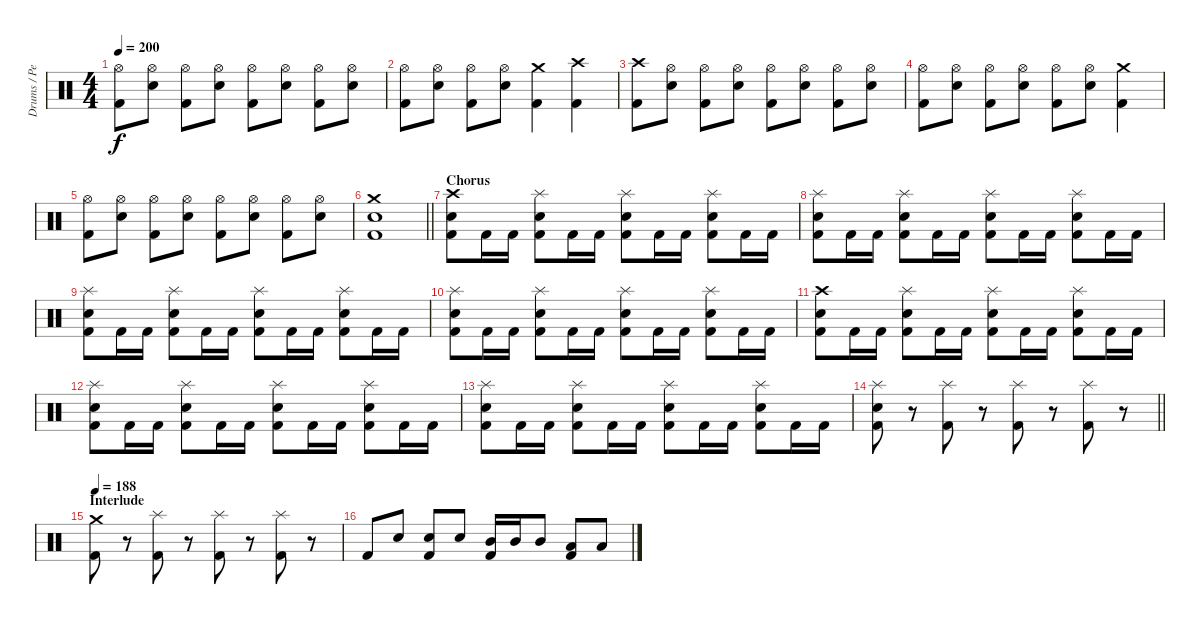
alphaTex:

\track ("Drums / Percussion" "Drums / Pe") {instrument percussion}
\staff {score}
\articulation defaults
\ts (4 4)
\tempo 200
\clef neutral
\ks c
("Hi-Hat (open)" "Kick (hit) 2").8{dy f} ("Hi-Hat (open)" "Electric Snare (hit)").8 ("Hi-Hat (open)" "Kick (hit) 2").8 ("Hi-Hat (open)" "Electric Snare (hit)").8 ("Hi-Hat (open)" "Kick (hit) 2").8 ("Hi-Hat (open)" "Electric Snare (hit)").8 ("Hi-Hat (open)" "Kick (hit) 2").8 ("Hi-Hat (open)" "Electric Snare (hit)").8 |
("Hi-Hat (open)" "Kick (hit) 2").8 ("Hi-Hat (open)" "Electric Snare (hit)").8 ("Hi-Hat (open)" "Kick (hit) 2").8 ("Hi-Hat (open)" "Electric Snare (hit)").8 ("Crash medium (hit)" "Kick (hit) 2").4 ("Crash high (hit)" "Kick (hit) 2").4 |
("Crash high (hit)" "Kick (hit) 2").8 ("Hi-Hat (open)" "Electric Snare (hit)").8 ("Hi-Hat (open)" "Kick (hit) 2").8 ("Hi-Hat (open)" "Electric Snare (hit)").8 ("Hi-Hat (open)" "Kick (hit) 2").8 ("Hi-Hat (open)" "Electric Snare (hit)").8 ("Hi-Hat (open)" "Kick (hit) 2").8 ("Hi-Hat (open)" "Electric Snare (hit)").8 |
("Hi-Hat (open)" "Kick (hit) 2").8 ("Hi-Hat (open)" "Electric Snare (hit)").8 ("Hi-Hat (open)" "Kick (hit) 2").8 ("Hi-Hat (open)" "Electric Snare (hit)").8 ("Hi-Hat (open)" "Kick (hit) 2").8 ("Hi-Hat (open)" "Electric Snare (hit)").8 ("Crash medium (hit)" "Kick (hit) 2").4 |
("Hi-Hat (open)" "Kick (hit) 2").8 ("Hi-Hat (open)" "Electric Snare (hit)").8 ("Hi-Hat (open)" "Kick (hit) 2").8 ("Hi-Hat (open)" "Electric Snare (hit)").8 ("Hi-Hat (open)" "Kick (hit) 2").8 ("Hi-Hat (open)" "Electric Snare (hit)").8 ("Hi-Hat (open)" "Kick (hit) 2").8 ("Hi-Hat (open)" "Electric Snare (hit)").8 |
\barLineRight lightlight
("Crash medium (hit)" "Electric Snare (hit)" "Kick (hit) 2").1 |
\section ("" "Chorus")
("Crash high (hit)" "Electric Snare (hit)" "Kick (hit) 2").8 "Kick (hit) 2".16 "Kick (hit) 2".16 ("Splash (hit)" "Electric Snare (hit)" "Kick (hit) 2").8 "Kick (hit) 2".16 "Kick (hit) 2".16 ("Splash (hit)" "Electric Snare (hit)" "Kick (hit) 2").8 "Kick (hit) 2".16 "Kick (hit) 2".16 ("Splash (hit)" "Electric Snare (hit)" "Kick (hit) 2").8 "Kick (hit) 2".16 "Kick (hit) 2".16 |
("Splash (hit)" "Electric Snare (hit)" "Kick (hit) 2").8 "Kick (hit) 2".16 "Kick (hit) 2".16 ("Splash (hit)" "Electric Snare (hit)" "Kick (hit) 2").8 "Kick (hit) 2".16 "Kick (hit) 2".16 ("Splash (hit)" "Electric Snare (hit)" "Kick (hit) 2").8 "Kick (hit) 2".16 "Kick (hit) 2".16 ("Splash (hit)" "Electric Snare (hit)" "Kick (hit) 2").8 "Kick (hit) 2".16 "Kick (hit) 2".16 |
("Splash (hit)" "Electric Snare (hit)" "Kick (hit) 2").8 "Kick (hit) 2".16 "Kick (hit) 2".16 ("Splash (hit)" "Electric Snare (hit)" "Kick (hit) 2").8 "Kick (hit) 2".16 "Kick (hit) 2".16 ("Splash (hit)" "Electric Snare (hit)" "Kick (hit) 2").8 "Kick (hit) 2".16 "Kick (hit) 2".16 ("Splash (hit)" "Electric Snare (hit)" "Kick (hit) 2").8 "Kick (hit) 2".16 "Kick (hit) 2".16 |
("Splash (hit)" "Electric Snare (hit)" "Kick (hit) 2").8 "Kick (hit) 2".16 "Kick (hit) 2".16 ("Splash (hit)" "Electric Snare (hit)" "Kick (hit) 2").8 "Kick (hit) 2".16 "Kick (hit) 2".16 ("Splash (hit)" "Electric Snare (hit)" "Kick (hit) 2").8 "Kick (hit) 2".16 "Kick (hit) 2".16 ("Splash (hit)" "Electric Snare (hit)" "Kick (hit) 2").8 "Kick (hit) 2".16 "Kick (hit) 2".16 |
("Crash high (hit)" "Electric Snare (hit)" "Kick (hit) 2").8 "Kick (hit) 2".16 "Kick (hit) 2".16 ("Splash (hit)" "Electric Snare (hit)" "Kick (hit) 2").8 "Kick (hit) 2".16 "Kick (hit) 2".16 ("Splash (hit)" "Electric Snare (hit)" "Kick (hit) 2").8 "Kick (hit) 2".16 "Kick (hit) 2".16 ("Splash (hit)" "Electric Snare (hit)" "Kick (hit) 2").8 "Kick (hit) 2".16 "Kick (hit) 2".16 |
("Splash (hit)" "Electric Snare (hit)" "Kick (hit) 2").8 "Kick (hit) 2".16 "Kick (hit) 2".16 ("Splash (hit)" "Electric Snare (hit)" "Kick (hit) 2").8 "Kick (hit) 2".16 "Kick (hit) 2".16 ("Splash (hit)" "Electric Snare (hit)" "Kick (hit) 2").8 "Kick (hit) 2".16 "Kick (hit) 2".16 ("Splash (hit)" "Electric Snare (hit)" "Kick (hit) 2").8 "Kick (hit) 2".16 "Kick (hit) 2".16 |
("Splash (hit)" "Electric Snare (hit)" "Kick (hit) 2").8 "Kick (hit) 2".16 "Kick (hit) 2".16 ("Splash (hit)" "Electric Snare (hit)" "Kick (hit) 2").8 "Kick (hit) 2".16 "Kick (hit) 2".16 ("Splash (hit)" "Electric Snare (hit)" "Kick (hit) 2").8 "Kick (hit) 2".16 "Kick (hit) 2".16 ("Splash (hit)" "Electric Snare (hit)" "Kick (hit) 2").8 "Kick (hit) 2".16 "Kick (hit) 2".16 |
\barLineRight lightlight
("Splash (hit)" "Electric Snare (hit)" "Kick (hit) 2").8 r.8 ("Splash (hit)" "Kick (hit) 2").8 r.8 ("Splash (hit)" "Kick (hit) 2").8 r.8 ("Splash (hit)" "Kick (hit) 2").8 r.8 |
\section ("" "Interlude")
\tempo 188
("Crash medium (hit)" "Kick (hit) 2").8 r.8 ("Splash (hit)" "Kick (hit) 2").8 r.8 ("Splash (hit)" "Kick (hit) 2").8 r.8 ("Splash (hit)" "Kick (hit) 2").8 r.8 |
"Kick (hit) 2".8 "Electric Snare (hit)".8 ("Electric Snare (hit)" "Kick (hit) 2").8 "Electric Snare (hit)".8 ("Mid Tom (hit)" "Kick (hit) 2").16 "Mid Tom (hit)".16 "Mid Tom (hit)".8 ("Low Tom (hit)" "Kick (hit) 2").8 "Low Tom (hit)".8
